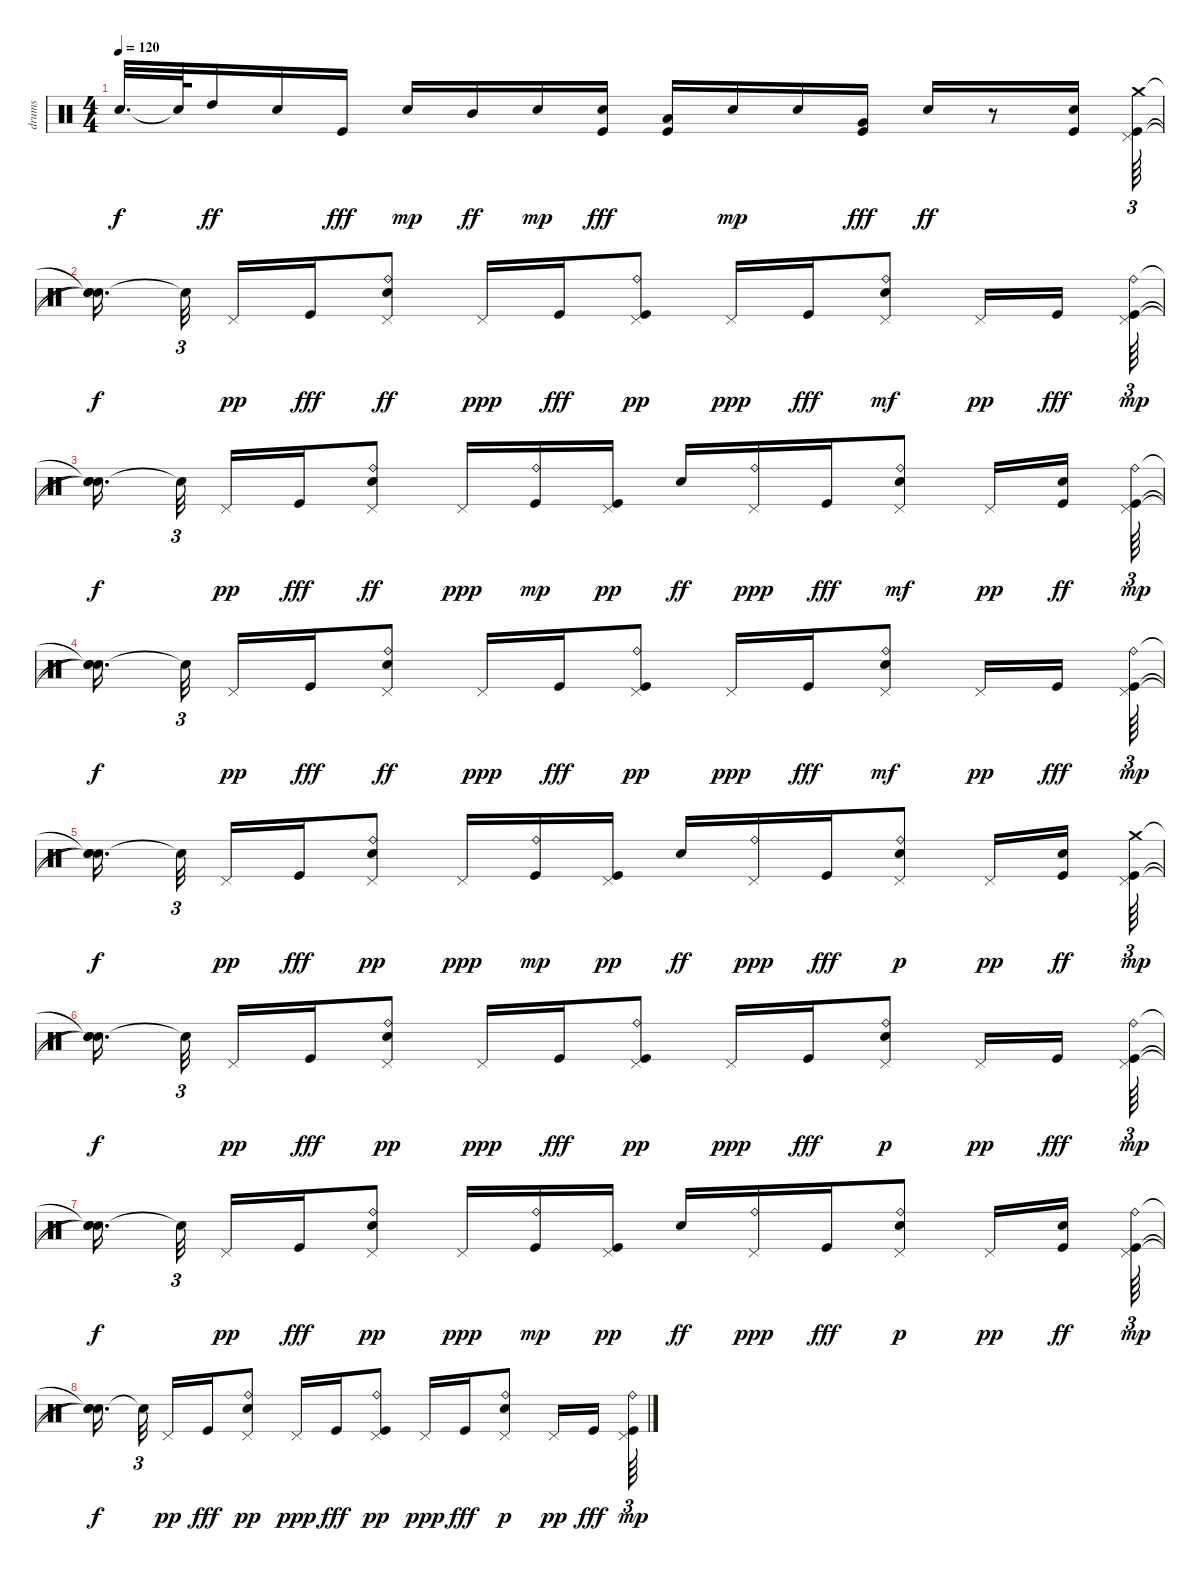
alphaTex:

\track ("drums" "drums") {instrument percussion}
\staff {score}
\articulation defaults
\ts (4 4)
\tempo 120
\clef neutral
\ks c "Snare (hit)"{t}.32{d dy f} "Snare (hit)"{t}.64 "High Tom (hit)".16{dy ff} "Snare (hit) 2".16 "Kick (hit)".16{dy fff} "Snare (hit) 2".16{dy mp} "Mid Tom (hit)".16{dy ff} "Snare (hit) 2".16{dy mp}
("Snare (hit) 2" "Kick (hit)").16{dy fff} ("Low Tom (hit)" "Kick (hit)").16 "Snare (hit) 2".16{dy mp} "Snare (hit) 2".16 ("Very Low Tom (hit)" "Kick (hit)").16{dy fff} "Snare (hit) 2".16{dy ff} r.8 ("Kick (hit)" "Snare (hit) 2").16 ("Kick (hit)" "Pedal Hi-Hat (hit)" "Crash medium (hit)").64{tu (3 2)} |
("Snare (hit)"{t} "Snare (hit)"{t} "Snare (hit)"{t}).16{d dy f beam splitsecondary} "Snare (hit)"{t}.32{tu (3 2) beam splitsecondary} "Pedal Hi-Hat (hit)".16{dy pp} "Kick (hit)".16{dy fff} ("Snare (hit) 2" "Pedal Hi-Hat (hit)" "Ride (bell)").8{dy ff} "Pedal Hi-Hat (hit)".16{dy ppp} "Kick (hit)".16{dy fff} ("Kick (hit)" "Pedal Hi-Hat (hit)" "Ride (bell)").8{dy pp} "Pedal Hi-Hat (hit)".16{dy ppp} "Kick (hit)".16{dy fff} ("Snare (hit) 2" "Pedal Hi-Hat (hit)" "Ride (bell)").8{dy mf} "Pedal Hi-Hat (hit)".16{dy pp} "Kick (hit)".16{dy fff beam splitsecondary} ("Kick (hit)" "Pedal Hi-Hat (hit)" "Ride (bell)").64{tu (3 2) dy mp} |
("Snare (hit)"{t} "Snare (hit)"{t} "Snare (hit)"{t}).16{d dy f beam splitsecondary} "Snare (hit)"{t}.32{tu (3 2) beam splitsecondary} "Pedal Hi-Hat (hit)".16{dy pp} "Kick (hit)".16{dy fff} ("Snare (hit) 2" "Pedal Hi-Hat (hit)" "Ride (bell)").8{dy ff} "Pedal Hi-Hat (hit)".16{dy ppp} ("Kick (hit)" "Ride (bell)").16{dy mp} ("Kick (hit)" "Pedal Hi-Hat (hit)").16{dy pp} "Snare (hit) 2".16{dy ff} ("Pedal Hi-Hat (hit)" "Ride (bell)").16{dy ppp} "Kick (hit)".16{dy fff} ("Snare (hit) 2" "Pedal Hi-Hat (hit)" "Ride (bell)").8{dy mf} "Pedal Hi-Hat (hit)".16{dy pp} ("Kick (hit)" "Snare (hit) 2").16{dy ff beam splitsecondary} ("Kick (hit)" "Pedal Hi-Hat (hit)" "Ride (bell)").64{tu (3 2) dy mp} |
("Snare (hit)"{t} "Snare (hit)"{t} "Snare (hit)"{t}).16{d dy f beam splitsecondary} "Snare (hit)"{t}.32{tu (3 2) beam splitsecondary} "Pedal Hi-Hat (hit)".16{dy pp} "Kick (hit)".16{dy fff} ("Snare (hit) 2" "Pedal Hi-Hat (hit)" "Ride (bell)").8{dy ff} "Pedal Hi-Hat (hit)".16{dy ppp} "Kick (hit)".16{dy fff} ("Kick (hit)" "Pedal Hi-Hat (hit)" "Ride (bell)").8{dy pp} "Pedal Hi-Hat (hit)".16{dy ppp} "Kick (hit)".16{dy fff} ("Snare (hit) 2" "Pedal Hi-Hat (hit)" "Ride (bell)").8{dy mf} "Pedal Hi-Hat (hit)".16{dy pp} "Kick (hit)".16{dy fff beam splitsecondary} ("Kick (hit)" "Ride (bell)" "Pedal Hi-Hat (hit)").64{tu (3 2) dy mp} |
("Snare (hit)"{t} "Snare (hit)"{t} "Snare (hit)"{t}).16{d dy f beam splitsecondary} "Snare (hit)"{t}.32{tu (3 2) beam splitsecondary} "Pedal Hi-Hat (hit)".16{dy pp} "Kick (hit)".16{dy fff} ("Snare (hit) 2" "Ride (bell)" "Pedal Hi-Hat (hit)").8{dy pp} "Pedal Hi-Hat (hit)".16{dy ppp} ("Kick (hit)" "Ride (bell)").16{dy mp} ("Kick (hit)" "Pedal Hi-Hat (hit)").16{dy pp} "Snare (hit) 2".16{dy ff} ("Ride (bell)" "Pedal Hi-Hat (hit)").16{dy ppp} "Kick (hit)".16{dy fff} ("Snare (hit) 2" "Ride (bell)" "Pedal Hi-Hat (hit)").8{dy p} "Pedal Hi-Hat (hit)".16{dy pp} ("Kick (hit)" "Snare (hit) 2").16{dy ff beam splitsecondary} ("Kick (hit)" "Crash medium (hit)" "Pedal Hi-Hat (hit)").64{tu (3 2) dy mp} |
("Snare (hit)"{t} "Snare (hit)"{t} "Snare (hit)"{t}).16{d dy f beam splitsecondary} "Snare (hit)"{t}.32{tu (3 2) beam splitsecondary} "Pedal Hi-Hat (hit)".16{dy pp} "Kick (hit)".16{dy fff} ("Snare (hit) 2" "Ride (bell)" "Pedal Hi-Hat (hit)").8{dy pp} "Pedal Hi-Hat (hit)".16{dy ppp} "Kick (hit)".16{dy fff} ("Kick (hit)" "Ride (bell)" "Pedal Hi-Hat (hit)").8{dy pp} "Pedal Hi-Hat (hit)".16{dy ppp} "Kick (hit)".16{dy fff} ("Snare (hit) 2" "Ride (bell)" "Pedal Hi-Hat (hit)").8{dy p} "Pedal Hi-Hat (hit)".16{dy pp} "Kick (hit)".16{dy fff beam splitsecondary} ("Kick (hit)" "Ride (bell)" "Pedal Hi-Hat (hit)").64{tu (3 2) dy mp} |
("Snare (hit)"{t} "Snare (hit)"{t} "Snare (hit)"{t}).16{d dy f beam splitsecondary} "Snare (hit)"{t}.32{tu (3 2) beam splitsecondary} "Pedal Hi-Hat (hit)".16{dy pp} "Kick (hit)".16{dy fff} ("Snare (hit) 2" "Ride (bell)" "Pedal Hi-Hat (hit)").8{dy pp} "Pedal Hi-Hat (hit)".16{dy ppp} ("Kick (hit)" "Ride (bell)").16{dy mp} ("Kick (hit)" "Pedal Hi-Hat (hit)").16{dy pp} "Snare (hit) 2".16{dy ff} ("Ride (bell)" "Pedal Hi-Hat (hit)").16{dy ppp} "Kick (hit)".16{dy fff} ("Snare (hit) 2" "Ride (bell)" "Pedal Hi-Hat (hit)").8{dy p} "Pedal Hi-Hat (hit)".16{dy pp} ("Kick (hit)" "Snare (hit) 2").16{dy ff beam splitsecondary} ("Kick (hit)" "Ride (bell)" "Pedal Hi-Hat (hit)").64{tu (3 2) dy mp} |
("Snare (hit)"{t} "Snare (hit)"{t} "Snare (hit)"{t}).16{d dy f beam splitsecondary} "Snare (hit)"{t}.32{tu (3 2) beam splitsecondary} "Pedal Hi-Hat (hit)".16{dy pp} "Kick (hit)".16{dy fff} ("Snare (hit) 2" "Ride (bell)" "Pedal Hi-Hat (hit)").8{dy pp} "Pedal Hi-Hat (hit)".16{dy ppp} "Kick (hit)".16{dy fff} ("Kick (hit)" "Ride (bell)" "Pedal Hi-Hat (hit)").8{dy pp} "Pedal Hi-Hat (hit)".16{dy ppp} "Kick (hit)".16{dy fff} ("Snare (hit) 2" "Ride (bell)" "Pedal Hi-Hat (hit)").8{dy p} "Pedal Hi-Hat (hit)".16{dy pp} "Kick (hit)".16{dy fff beam splitsecondary} ("Kick (hit)" "Ride (bell)" "Pedal Hi-Hat (hit)").64{tu (3 2) dy mp}
